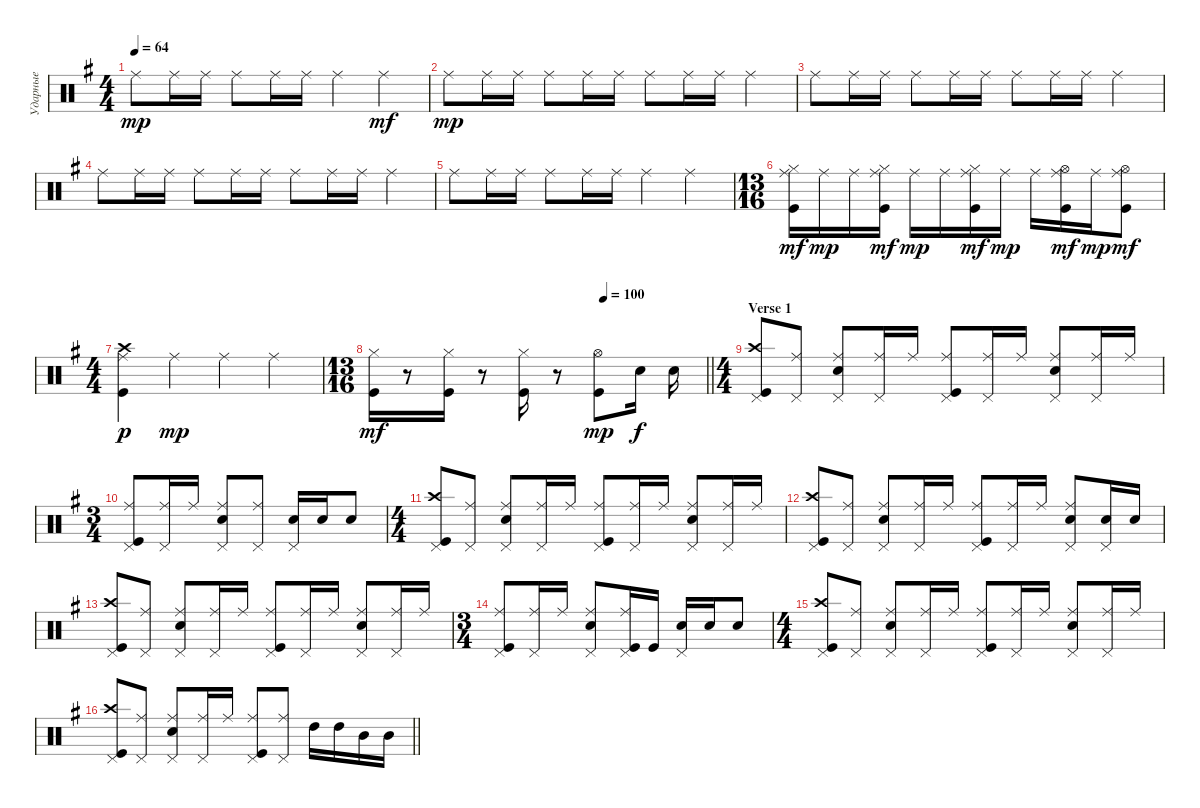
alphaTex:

\track ("Ударные" "Ударные") {instrument percussion}
\staff {score}
\articulation defaults
\ts (4 4)
\tempo 64
\clef neutral
\ks eminor "Ride (middle)".8{dy mp} "Ride (middle)".16 "Ride (middle)".16 "Ride (middle)".8 "Ride (middle)".16 "Ride (middle)".16 "Ride (middle)".4 "Ride (middle)".4{dy mf}
|
"Ride (middle)".8{dy mp} "Ride (middle)".16 "Ride (middle)".16 "Ride (middle)".8 "Ride (middle)".16 "Ride (middle)".16 "Ride (middle)".8 "Ride (middle)".16 "Ride (middle)".16 "Ride (middle)".4 |
"Ride (middle)".8 "Ride (middle)".16 "Ride (middle)".16 "Ride (middle)".8 "Ride (middle)".16 "Ride (middle)".16 "Ride (middle)".8 "Ride (middle)".16 "Ride (middle)".16 "Ride (middle)".4 |
"Ride (middle)".8 "Ride (middle)".16 "Ride (middle)".16 "Ride (middle)".8 "Ride (middle)".16 "Ride (middle)".16 "Ride (middle)".8 "Ride (middle)".16 "Ride (middle)".16 "Ride (middle)".4 |
"Ride (middle)".8 "Ride (middle)".16 "Ride (middle)".16 "Ride (middle)".8 "Ride (middle)".16 "Ride (middle)".16 "Ride (middle)".4 "Ride (middle)".4 |
\ts (13 16)
("Hi-Hat (closed)" "Ride (middle)" "Kick (hit)").16{dy mf} "Ride (middle)".16{dy mp} "Ride (middle)".16 ("Hi-Hat (closed)" "Ride (middle)" "Kick (hit)").16{dy mf} "Ride (middle)".16{dy mp} "Ride (middle)".16 ("Hi-Hat (closed)" "Ride (middle)" "Kick (hit)").16{dy mf} "Ride (middle)".16{dy mp} "Ride (middle)".16 ("Ride (middle)" "Hi-Hat (open)" "Kick (hit)").16{dy mf} "Ride (middle)".16{dy mp} ("Ride (middle)" "Hi-Hat (open)" "Kick (hit)").8{dy mf} |
\ts (4 4)
("Crash high (hit)" "Ride (middle)" "Kick (hit)").4{dy p} "Ride (middle)".4{dy mp} "Ride (middle)".4 "Ride (middle)".4 |
\ts (13 16)
\tempo (100 0.6923076923076923)
\barLineRight lightlight
("Hi-Hat (closed)" "Kick (hit)").16{dy mf} r.8 ("Hi-Hat (closed)" "Kick (hit)").16 r.8 ("Hi-Hat (closed)" "Kick (hit)").16 r.8 ("Kick (hit)" "Hi-Hat (open)").8{dy mp} "Snare (hit) 2".16{dy f} "Snare (hit) 2".16 |
\ts (4 4)
\section ("" "Verse 1")
("Crash high (hit)" "Kick (hit)" "Pedal Hi-Hat (hit)").8 ("Pedal Hi-Hat (hit)" "Ride (middle)").8 ("Ride (middle)" "Snare (hit) 2" "Pedal Hi-Hat (hit)").8 ("Ride (middle)" "Pedal Hi-Hat (hit)").16 "Ride (middle)".16 ("Ride (middle)" "Kick (hit)" "Pedal Hi-Hat (hit)").8 ("Ride (middle)" "Pedal Hi-Hat (hit)").16 "Ride (middle)".16 ("Ride (middle)" "Snare (hit) 2" "Pedal Hi-Hat (hit)").8 ("Ride (middle)" "Pedal Hi-Hat (hit)").16 "Ride (middle)".16 |
\ts (3 4)
("Ride (middle)" "Kick (hit)" "Pedal Hi-Hat (hit)").8 ("Ride (middle)" "Pedal Hi-Hat (hit)").16 "Ride (middle)".16 ("Ride (middle)" "Snare (hit) 2" "Pedal Hi-Hat (hit)").8 ("Ride (middle)" "Pedal Hi-Hat (hit)").8 ("Snare (hit) 2" "Pedal Hi-Hat (hit)").16 "Snare (hit) 2".16 "Snare (hit) 2".8 |
\ts (4 4)
("Crash high (hit)" "Kick (hit)" "Pedal Hi-Hat (hit)").8 ("Pedal Hi-Hat (hit)" "Ride (middle)").8 ("Ride (middle)" "Snare (hit) 2" "Pedal Hi-Hat (hit)").8 ("Ride (middle)" "Pedal Hi-Hat (hit)").16 "Ride (middle)".16 ("Ride (middle)" "Kick (hit)" "Pedal Hi-Hat (hit)").8 ("Ride (middle)" "Pedal Hi-Hat (hit)").16 "Ride (middle)".16 ("Ride (middle)" "Snare (hit) 2" "Pedal Hi-Hat (hit)").8 ("Ride (middle)" "Pedal Hi-Hat (hit)").16 "Ride (middle)".16 |
("Crash high (hit)" "Kick (hit)" "Pedal Hi-Hat (hit)").8 ("Pedal Hi-Hat (hit)" "Ride (middle)").8 ("Ride (middle)" "Snare (hit) 2" "Pedal Hi-Hat (hit)").8 ("Ride (middle)" "Pedal Hi-Hat (hit)").16 "Ride (middle)".16 ("Ride (middle)" "Kick (hit)" "Pedal Hi-Hat (hit)").8 ("Ride (middle)" "Pedal Hi-Hat (hit)").16 "Ride (middle)".16 ("Ride (middle)" "Snare (hit) 2" "Pedal Hi-Hat (hit)").8 ("Snare (hit) 2" "Pedal Hi-Hat (hit)").16 "Snare (hit) 2".16 |
("Crash high (hit)" "Kick (hit)" "Pedal Hi-Hat (hit)").8 ("Pedal Hi-Hat (hit)" "Ride (middle)").8 ("Ride (middle)" "Snare (hit) 2" "Pedal Hi-Hat (hit)").8 ("Ride (middle)" "Pedal Hi-Hat (hit)").16 "Ride (middle)".16 ("Ride (middle)" "Kick (hit)" "Pedal Hi-Hat (hit)").8 ("Ride (middle)" "Pedal Hi-Hat (hit)").16 "Ride (middle)".16 ("Ride (middle)" "Snare (hit) 2" "Pedal Hi-Hat (hit)").8 ("Ride (middle)" "Pedal Hi-Hat (hit)").16 "Ride (middle)".16 |
\ts (3 4)
("Ride (middle)" "Kick (hit)" "Pedal Hi-Hat (hit)").8 ("Ride (middle)" "Pedal Hi-Hat (hit)").16 "Ride (middle)".16 ("Ride (middle)" "Snare (hit) 2" "Pedal Hi-Hat (hit)").8 ("Ride (middle)" "Pedal Hi-Hat (hit)" "Kick (hit)").16 "Kick (hit)".16 ("Snare (hit) 2" "Pedal Hi-Hat (hit)").16 "Snare (hit) 2".16 "Snare (hit) 2".8 |
\ts (4 4)
("Crash high (hit)" "Kick (hit)" "Pedal Hi-Hat (hit)").8 ("Pedal Hi-Hat (hit)" "Ride (middle)").8 ("Ride (middle)" "Snare (hit) 2" "Pedal Hi-Hat (hit)").8 ("Ride (middle)" "Pedal Hi-Hat (hit)").16 "Ride (middle)".16 ("Ride (middle)" "Kick (hit)" "Pedal Hi-Hat (hit)").8 ("Ride (middle)" "Pedal Hi-Hat (hit)").16 "Ride (middle)".16 ("Ride (middle)" "Snare (hit) 2" "Pedal Hi-Hat (hit)").8 ("Ride (middle)" "Pedal Hi-Hat (hit)").16 "Ride (middle)".16 |
\barLineRight lightlight
("Crash high (hit)" "Kick (hit)" "Pedal Hi-Hat (hit)").8 ("Pedal Hi-Hat (hit)" "Ride (middle)").8 ("Ride (middle)" "Snare (hit) 2" "Pedal Hi-Hat (hit)").8 ("Ride (middle)" "Pedal Hi-Hat (hit)").16 "Ride (middle)".16 ("Ride (middle)" "Kick (hit)" "Pedal Hi-Hat (hit)").8 ("Ride (middle)" "Pedal Hi-Hat (hit)").8 "High Tom (hit)".16 "High Tom (hit)".16 "Mid Tom (hit)".16 "Mid Tom (hit)".16
